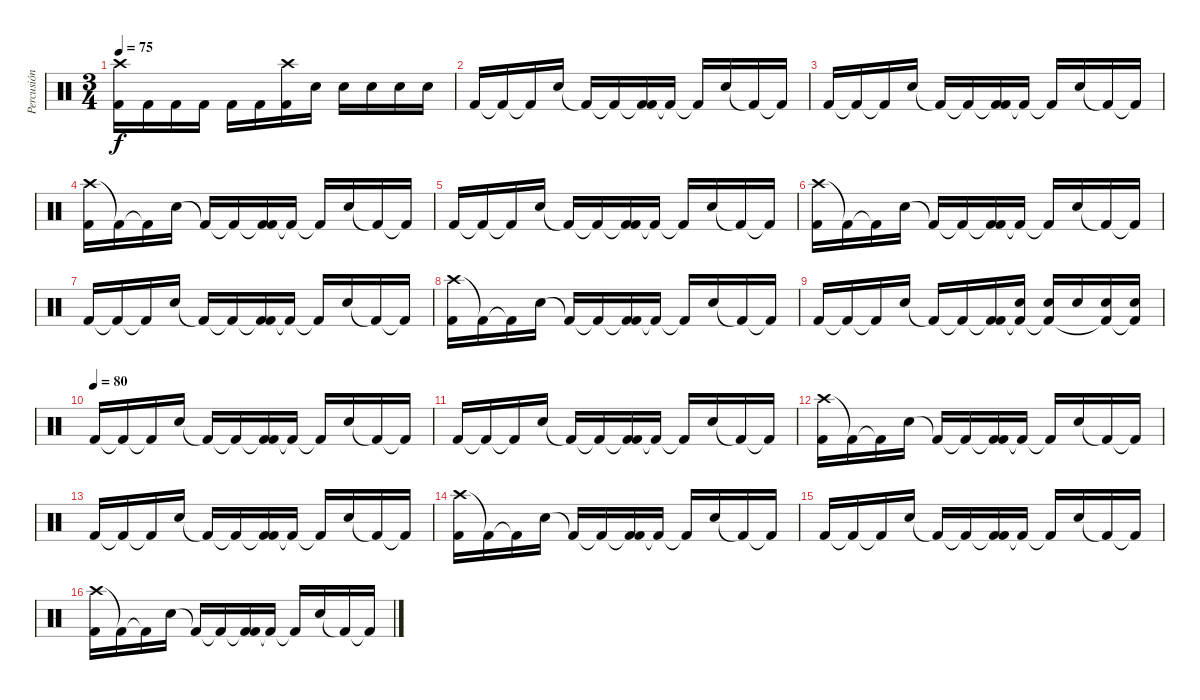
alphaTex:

\track ("Percusión" "Percusión") {instrument percussion}
\staff {score}
\articulation defaults
\ts (3 4)
\tempo 75
\clef neutral
\ks c
("Crash high (hit)" "Kick (hit) 2").16{dy f} "Kick (hit) 2".16 "Kick (hit) 2".16 "Kick (hit) 2".16 "Kick (hit) 2".16 "Kick (hit) 2".16 ("Crash high (hit)" "Kick (hit) 2").16 "Electric Snare (hit)".16 "Electric Snare (hit)".16 "Electric Snare (hit)".16 "Electric Snare (hit)".16 "Electric Snare (hit)".16 |
"Kick (hit) 2".16 "Kick (hit) 2"{t}.16 "Kick (hit) 2"{t}.16 "Electric Snare (hit)".16 "Kick (hit) 2"{t}.16 "Kick (hit) 2"{t}.16 ("Kick (hit) 2"{t} "Kick (hit) 2").16 "Kick (hit) 2"{t}.16 "Kick (hit) 2"{t}.16 "Electric Snare (hit)".16 "Kick (hit) 2"{t}.16 "Kick (hit) 2"{t}.16 |
"Kick (hit) 2".16 "Kick (hit) 2"{t}.16 "Kick (hit) 2"{t}.16 "Electric Snare (hit)".16 "Kick (hit) 2"{t}.16 "Kick (hit) 2"{t}.16 ("Kick (hit) 2"{t} "Kick (hit) 2").16 "Kick (hit) 2"{t}.16 "Kick (hit) 2"{t}.16 "Electric Snare (hit)".16 "Kick (hit) 2"{t}.16 "Kick (hit) 2"{t}.16 |
("Crash high (hit)" "Kick (hit) 2").16 "Kick (hit) 2"{t}.16 "Kick (hit) 2"{t}.16 "Electric Snare (hit)".16 "Kick (hit) 2"{t}.16 "Kick (hit) 2"{t}.16 ("Kick (hit) 2"{t} "Kick (hit) 2").16 "Kick (hit) 2"{t}.16 "Kick (hit) 2"{t}.16 "Electric Snare (hit)".16 "Kick (hit) 2"{t}.16 "Kick (hit) 2"{t}.16 |
"Kick (hit) 2".16 "Kick (hit) 2"{t}.16 "Kick (hit) 2"{t}.16 "Electric Snare (hit)".16 "Kick (hit) 2"{t}.16 "Kick (hit) 2"{t}.16 ("Kick (hit) 2"{t} "Kick (hit) 2").16 "Kick (hit) 2"{t}.16 "Kick (hit) 2"{t}.16 "Electric Snare (hit)".16 "Kick (hit) 2"{t}.16 "Kick (hit) 2"{t}.16 |
("Crash high (hit)" "Kick (hit) 2").16 "Kick (hit) 2"{t}.16 "Kick (hit) 2"{t}.16 "Electric Snare (hit)".16 "Kick (hit) 2"{t}.16 "Kick (hit) 2"{t}.16 ("Kick (hit) 2"{t} "Kick (hit) 2").16 "Kick (hit) 2"{t}.16 "Kick (hit) 2"{t}.16 "Electric Snare (hit)".16 "Kick (hit) 2"{t}.16 "Kick (hit) 2"{t}.16 |
"Kick (hit) 2".16 "Kick (hit) 2"{t}.16 "Kick (hit) 2"{t}.16 "Electric Snare (hit)".16 "Kick (hit) 2"{t}.16 "Kick (hit) 2"{t}.16 ("Kick (hit) 2"{t} "Kick (hit) 2").16 "Kick (hit) 2"{t}.16 "Kick (hit) 2"{t}.16 "Electric Snare (hit)".16 "Kick (hit) 2"{t}.16 "Kick (hit) 2"{t}.16 |
("Crash high (hit)" "Kick (hit) 2").16 "Kick (hit) 2"{t}.16 "Kick (hit) 2"{t}.16 "Electric Snare (hit)".16 "Kick (hit) 2"{t}.16 "Kick (hit) 2"{t}.16 ("Kick (hit) 2"{t} "Kick (hit) 2").16 "Kick (hit) 2"{t}.16 "Kick (hit) 2"{t}.16 "Electric Snare (hit)".16 "Kick (hit) 2"{t}.16 "Kick (hit) 2"{t}.16 |
"Kick (hit) 2".16 "Kick (hit) 2"{t}.16 "Kick (hit) 2"{t}.16 "Electric Snare (hit)".16 "Kick (hit) 2"{t}.16 "Kick (hit) 2"{t}.16 ("Kick (hit) 2"{t} "Kick (hit) 2").16 ("Electric Snare (hit)" "Kick (hit) 2"{t}).16 ("Electric Snare (hit)" "Kick (hit) 2"{t}).16 "Electric Snare (hit)".16 ("Electric Snare (hit)" "Kick (hit) 2"{t}).16 ("Electric Snare (hit)" "Kick (hit) 2"{t}).16 |
\tempo (80)
"Kick (hit) 2".16 "Kick (hit) 2"{t}.16 "Kick (hit) 2"{t}.16 "Electric Snare (hit)".16 "Kick (hit) 2"{t}.16 "Kick (hit) 2"{t}.16 ("Kick (hit) 2"{t} "Kick (hit) 2").16 "Kick (hit) 2"{t}.16 "Kick (hit) 2"{t}.16 "Electric Snare (hit)".16 "Kick (hit) 2"{t}.16 "Kick (hit) 2"{t}.16 |
"Kick (hit) 2".16 "Kick (hit) 2"{t}.16 "Kick (hit) 2"{t}.16 "Electric Snare (hit)".16 "Kick (hit) 2"{t}.16 "Kick (hit) 2"{t}.16 ("Kick (hit) 2"{t} "Kick (hit) 2").16 "Kick (hit) 2"{t}.16 "Kick (hit) 2"{t}.16 "Electric Snare (hit)".16 "Kick (hit) 2"{t}.16 "Kick (hit) 2"{t}.16 |
("Crash high (hit)" "Kick (hit) 2").16 "Kick (hit) 2"{t}.16 "Kick (hit) 2"{t}.16 "Electric Snare (hit)".16 "Kick (hit) 2"{t}.16 "Kick (hit) 2"{t}.16 ("Kick (hit) 2"{t} "Kick (hit) 2").16 "Kick (hit) 2"{t}.16 "Kick (hit) 2"{t}.16 "Electric Snare (hit)".16 "Kick (hit) 2"{t}.16 "Kick (hit) 2"{t}.16 |
"Kick (hit) 2".16 "Kick (hit) 2"{t}.16 "Kick (hit) 2"{t}.16 "Electric Snare (hit)".16 "Kick (hit) 2"{t}.16 "Kick (hit) 2"{t}.16 ("Kick (hit) 2"{t} "Kick (hit) 2").16 "Kick (hit) 2"{t}.16 "Kick (hit) 2"{t}.16 "Electric Snare (hit)".16 "Kick (hit) 2"{t}.16 "Kick (hit) 2"{t}.16 |
("Crash high (hit)" "Kick (hit) 2").16 "Kick (hit) 2"{t}.16 "Kick (hit) 2"{t}.16 "Electric Snare (hit)".16 "Kick (hit) 2"{t}.16 "Kick (hit) 2"{t}.16 ("Kick (hit) 2"{t} "Kick (hit) 2").16 "Kick (hit) 2"{t}.16 "Kick (hit) 2"{t}.16 "Electric Snare (hit)".16 "Kick (hit) 2"{t}.16 "Kick (hit) 2"{t}.16 |
"Kick (hit) 2".16 "Kick (hit) 2"{t}.16 "Kick (hit) 2"{t}.16 "Electric Snare (hit)".16 "Kick (hit) 2"{t}.16 "Kick (hit) 2"{t}.16 ("Kick (hit) 2"{t} "Kick (hit) 2").16 "Kick (hit) 2"{t}.16 "Kick (hit) 2"{t}.16 "Electric Snare (hit)".16 "Kick (hit) 2"{t}.16 "Kick (hit) 2"{t}.16 |
("Crash high (hit)" "Kick (hit) 2").16 "Kick (hit) 2"{t}.16 "Kick (hit) 2"{t}.16 "Electric Snare (hit)".16 "Kick (hit) 2"{t}.16 "Kick (hit) 2"{t}.16 ("Kick (hit) 2"{t} "Kick (hit) 2").16 "Kick (hit) 2"{t}.16 "Kick (hit) 2"{t}.16 "Electric Snare (hit)".16 "Kick (hit) 2"{t}.16 "Kick (hit) 2"{t}.16
